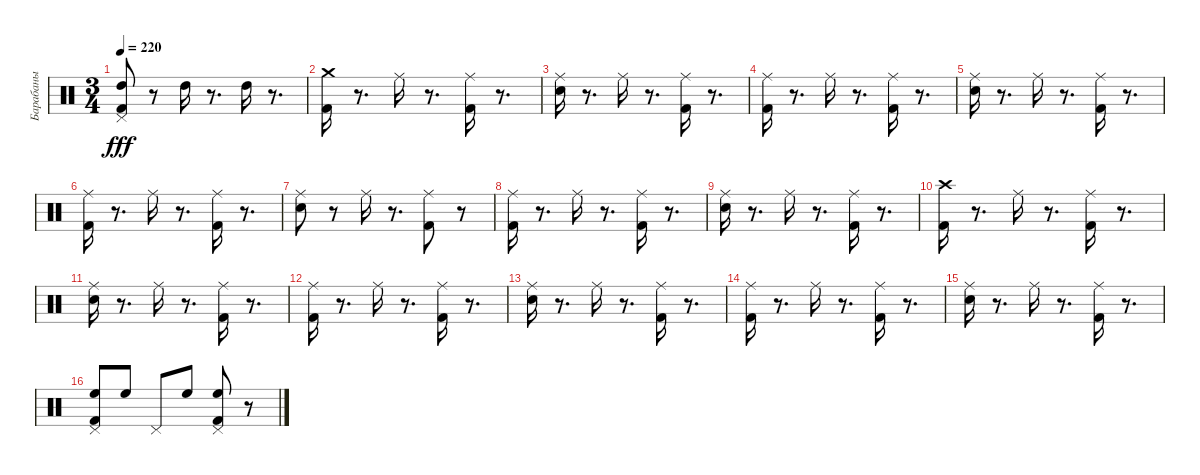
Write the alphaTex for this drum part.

\track ("Барабаны" "Барабаны") {instrument percussion}
\staff {score}
\articulation defaults
\ts (3 4)
\tempo 220
\clef neutral
\ks c
("Pedal Hi-Hat (hit)" "High Tom (hit)" "Kick (hit) 2").8{dy fff} r.8 "High Tom (hit)".16 r.8{d} "High Tom (hit)".16 r.8{d} |
("Kick (hit) 2" "Crash medium (hit)").16 r.8{d} "Ride (middle)".16 r.8{d} ("Kick (hit) 2" "Ride (middle)").16 r.8{d} |
("Snare (hit) 2" "Ride (middle)").16 r.8{d} "Ride (middle)".16 r.8{d} ("Ride (middle)" "Kick (hit) 2").16 r.8{d} |
("Kick (hit) 2" "Ride (middle)").16 r.8{d} "Ride (middle)".16 r.8{d} ("Kick (hit) 2" "Ride (middle)").16 r.8{d} |
("Ride (middle)" "Snare (hit) 2").16 r.8{d} "Ride (middle)".16 r.8{d} ("Kick (hit) 2" "Ride (middle)").16 r.8{d} |
("Ride (middle)" "Kick (hit) 2").16 r.8{d} "Ride (middle)".16 r.8{d} ("Kick (hit) 2" "Ride (middle)").16 r.8{d} |
("Snare (hit) 2" "Ride (middle)").8 r.8 "Ride (middle)".16 r.8{d} ("Kick (hit) 2" "Ride (middle)").8 r.8 |
("Ride (middle)" "Kick (hit) 2").16 r.8{d} "Ride (middle)".16 r.8{d} ("Kick (hit) 2" "Ride (middle)").16 r.8{d} |
("Ride (middle)" "Snare (hit) 2").16 r.8{d} "Ride (middle)".16 r.8{d} ("Kick (hit) 2" "Ride (middle)").16 r.8{d} |
("Crash high (hit)" "Kick (hit) 2").16 r.8{d} "Ride (middle)".16 r.8{d} ("Kick (hit) 2" "Ride (middle)").16 r.8{d} |
("Ride (middle)" "Snare (hit) 2").16 r.8{d} "Ride (middle)".16 r.8{d} ("Kick (hit) 2" "Ride (middle)").16 r.8{d} |
("Kick (hit) 2" "Ride (middle)").16 r.8{d} "Ride (middle)".16 r.8{d} ("Ride (middle)" "Kick (hit) 2").16 r.8{d} |
("Snare (hit) 2" "Ride (middle)").16 r.8{d} "Ride (middle)".16 r.8{d} ("Ride (middle)" "Kick (hit) 2").16 r.8{d} |
("Kick (hit) 2" "Ride (middle)").16 r.8{d} "Ride (middle)".16 r.8{d} ("Kick (hit) 2" "Ride (middle)").16 r.8{d} |
("Snare (hit) 2" "Ride (middle)").16 r.8{d} "Ride (middle)".16 r.8{d} ("Kick (hit) 2" "Ride (middle)").16 r.8{d} |
("Pedal Hi-Hat (hit)" "High Floor Tom (hit)" "Kick (hit) 2").8 "High Floor Tom (hit)".8 "Pedal Hi-Hat (hit)".8 "High Floor Tom (hit)".8 ("Pedal Hi-Hat (hit)" "High Floor Tom (hit)" "Kick (hit) 2").8 r.8
